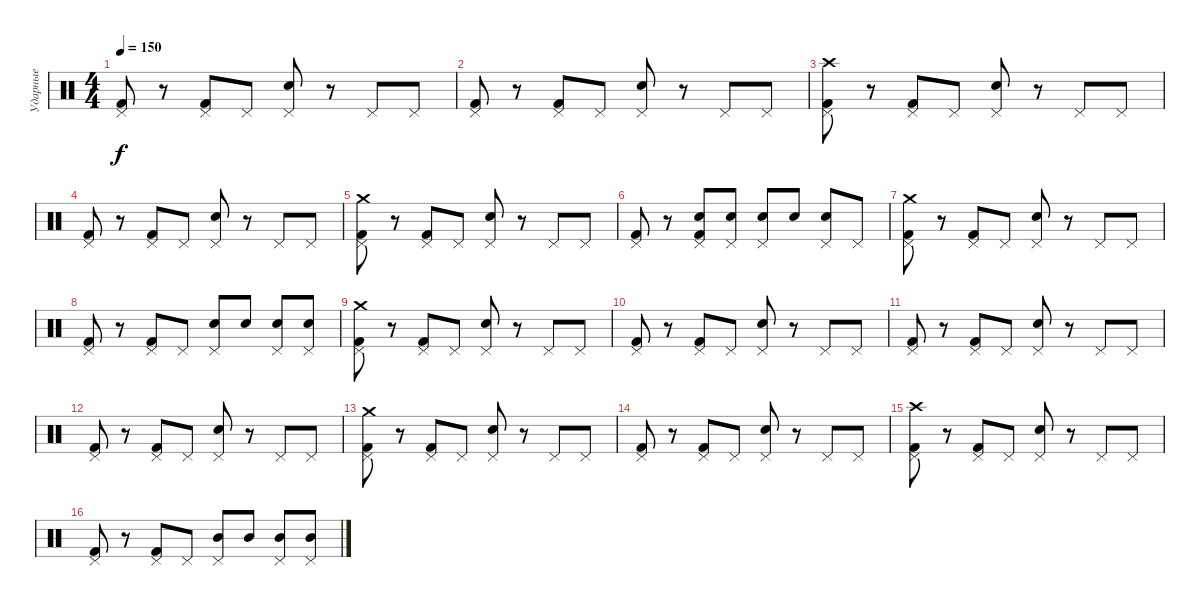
\track ("Ударные" "Ударные") {instrument percussion}
\staff {score}
\articulation defaults
\ts (4 4)
\tempo 150
\clef neutral
\ks c
("Kick (hit) 2" "Pedal Hi-Hat (hit)").8{dy f} r.8 ("Kick (hit) 2" "Pedal Hi-Hat (hit)").8 "Pedal Hi-Hat (hit)".8 ("Pedal Hi-Hat (hit)" "Electric Snare (hit)").8 r.8 "Pedal Hi-Hat (hit)".8 "Pedal Hi-Hat (hit)".8 |
("Kick (hit) 2" "Pedal Hi-Hat (hit)").8 r.8 ("Kick (hit) 2" "Pedal Hi-Hat (hit)").8 "Pedal Hi-Hat (hit)".8 ("Pedal Hi-Hat (hit)" "Electric Snare (hit)").8 r.8 "Pedal Hi-Hat (hit)".8 "Pedal Hi-Hat (hit)".8 |
("Crash high (hit)" "Kick (hit) 2" "Pedal Hi-Hat (hit)").8 r.8 ("Kick (hit) 2" "Pedal Hi-Hat (hit)").8 "Pedal Hi-Hat (hit)".8 ("Pedal Hi-Hat (hit)" "Electric Snare (hit)").8 r.8 "Pedal Hi-Hat (hit)".8 "Pedal Hi-Hat (hit)".8 |
("Kick (hit) 2" "Pedal Hi-Hat (hit)").8 r.8 ("Kick (hit) 2" "Pedal Hi-Hat (hit)").8 "Pedal Hi-Hat (hit)".8 ("Pedal Hi-Hat (hit)" "Electric Snare (hit)").8 r.8 "Pedal Hi-Hat (hit)".8 "Pedal Hi-Hat (hit)".8 |
("Crash medium (hit)" "Kick (hit) 2" "Pedal Hi-Hat (hit)").8 r.8 ("Kick (hit) 2" "Pedal Hi-Hat (hit)").8 "Pedal Hi-Hat (hit)".8 ("Pedal Hi-Hat (hit)" "Electric Snare (hit)").8 r.8 "Pedal Hi-Hat (hit)".8 "Pedal Hi-Hat (hit)".8 |
("Kick (hit) 2" "Pedal Hi-Hat (hit)").8 r.8 ("Kick (hit) 2" "Pedal Hi-Hat (hit)" "Electric Snare (hit)").8 ("Pedal Hi-Hat (hit)" "Electric Snare (hit)").8 ("Pedal Hi-Hat (hit)" "Electric Snare (hit)").8 "Electric Snare (hit)".8 ("Pedal Hi-Hat (hit)" "Electric Snare (hit)").8 "Pedal Hi-Hat (hit)".8 |
("Crash medium (hit)" "Kick (hit) 2" "Pedal Hi-Hat (hit)").8 r.8 ("Kick (hit) 2" "Pedal Hi-Hat (hit)").8 "Pedal Hi-Hat (hit)".8 ("Pedal Hi-Hat (hit)" "Electric Snare (hit)").8 r.8 "Pedal Hi-Hat (hit)".8 "Pedal Hi-Hat (hit)".8 |
("Kick (hit) 2" "Pedal Hi-Hat (hit)").8 r.8 ("Kick (hit) 2" "Pedal Hi-Hat (hit)").8 "Pedal Hi-Hat (hit)".8 ("Electric Snare (hit)" "Pedal Hi-Hat (hit)").8 "Electric Snare (hit)".8 ("Electric Snare (hit)" "Pedal Hi-Hat (hit)").8 ("Electric Snare (hit)" "Pedal Hi-Hat (hit)").8 |
("Crash medium (hit)" "Kick (hit) 2" "Pedal Hi-Hat (hit)").8 r.8 ("Kick (hit) 2" "Pedal Hi-Hat (hit)").8 "Pedal Hi-Hat (hit)".8 ("Pedal Hi-Hat (hit)" "Electric Snare (hit)").8 r.8 "Pedal Hi-Hat (hit)".8 "Pedal Hi-Hat (hit)".8 |
("Kick (hit) 2" "Pedal Hi-Hat (hit)").8 r.8 ("Kick (hit) 2" "Pedal Hi-Hat (hit)").8 "Pedal Hi-Hat (hit)".8 ("Pedal Hi-Hat (hit)" "Electric Snare (hit)").8 r.8 "Pedal Hi-Hat (hit)".8 "Pedal Hi-Hat (hit)".8 |
("Kick (hit) 2" "Pedal Hi-Hat (hit)").8 r.8 ("Kick (hit) 2" "Pedal Hi-Hat (hit)").8 "Pedal Hi-Hat (hit)".8 ("Pedal Hi-Hat (hit)" "Electric Snare (hit)").8 r.8 "Pedal Hi-Hat (hit)".8 "Pedal Hi-Hat (hit)".8 |
("Kick (hit) 2" "Pedal Hi-Hat (hit)").8 r.8 ("Kick (hit) 2" "Pedal Hi-Hat (hit)").8 "Pedal Hi-Hat (hit)".8 ("Pedal Hi-Hat (hit)" "Electric Snare (hit)").8 r.8 "Pedal Hi-Hat (hit)".8 "Pedal Hi-Hat (hit)".8 |
("Crash medium (hit)" "Kick (hit) 2" "Pedal Hi-Hat (hit)").8 r.8 ("Kick (hit) 2" "Pedal Hi-Hat (hit)").8 "Pedal Hi-Hat (hit)".8 ("Pedal Hi-Hat (hit)" "Electric Snare (hit)").8 r.8 "Pedal Hi-Hat (hit)".8 "Pedal Hi-Hat (hit)".8 |
("Kick (hit) 2" "Pedal Hi-Hat (hit)").8 r.8 ("Kick (hit) 2" "Pedal Hi-Hat (hit)").8 "Pedal Hi-Hat (hit)".8 ("Pedal Hi-Hat (hit)" "Electric Snare (hit)").8 r.8 "Pedal Hi-Hat (hit)".8 "Pedal Hi-Hat (hit)".8 |
("Crash high (hit)" "Kick (hit) 2" "Pedal Hi-Hat (hit)").8 r.8 ("Kick (hit) 2" "Pedal Hi-Hat (hit)").8 "Pedal Hi-Hat (hit)".8 ("Pedal Hi-Hat (hit)" "Electric Snare (hit)").8 r.8 "Pedal Hi-Hat (hit)".8 "Pedal Hi-Hat (hit)".8 |
("Kick (hit) 2" "Pedal Hi-Hat (hit)").8 r.8 ("Kick (hit) 2" "Pedal Hi-Hat (hit)").8 "Pedal Hi-Hat (hit)".8 ("Mid Tom (hit)" "Pedal Hi-Hat (hit)").8 "Mid Tom (hit)".8 ("Mid Tom (hit)" "Pedal Hi-Hat (hit)").8 ("Mid Tom (hit)" "Pedal Hi-Hat (hit)").8
